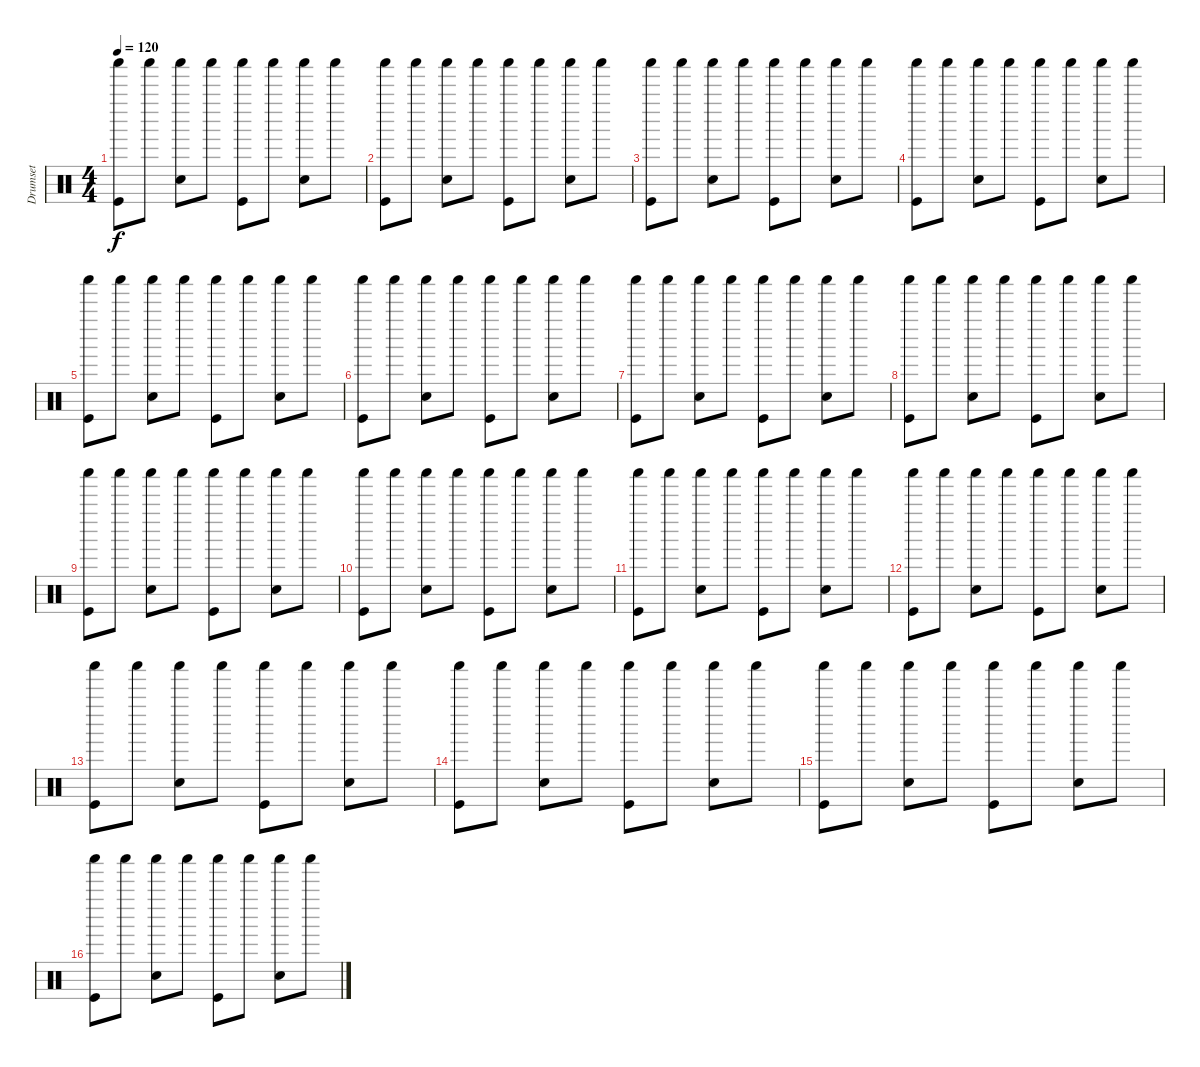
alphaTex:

\track ("Drumset" "Drumset") {instrument percussion}
\staff {score}
\articulation defaults
\ts (4 4)
\tempo 120
\clef neutral
\ks c
("Shaker (hit)" "Kick (hit)").8{dy f} "Shaker (hit)".8 ("Shaker (hit)" "Snare (hit) 2").8 "Shaker (hit)".8 ("Shaker (hit)" "Kick (hit)").8 "Shaker (hit)".8 ("Shaker (hit)" "Snare (hit) 2").8 "Shaker (hit)".8 |
("Shaker (hit)" "Kick (hit)").8 "Shaker (hit)".8 ("Shaker (hit)" "Snare (hit) 2").8 "Shaker (hit)".8 ("Shaker (hit)" "Kick (hit)").8 "Shaker (hit)".8 ("Shaker (hit)" "Snare (hit) 2").8 "Shaker (hit)".8 |
("Shaker (hit)" "Kick (hit)").8{volume 10} "Shaker (hit)".8 ("Shaker (hit)" "Snare (hit) 2").8 "Shaker (hit)".8 ("Shaker (hit)" "Kick (hit)").8 "Shaker (hit)".8 ("Shaker (hit)" "Snare (hit) 2").8 "Shaker (hit)".8 |
("Shaker (hit)" "Kick (hit)").8 "Shaker (hit)".8 ("Shaker (hit)" "Snare (hit) 2").8 "Shaker (hit)".8 ("Shaker (hit)" "Kick (hit)").8 "Shaker (hit)".8 ("Shaker (hit)" "Snare (hit) 2").8 "Shaker (hit)".8 |
("Shaker (hit)" "Kick (hit)").8 "Shaker (hit)".8 ("Shaker (hit)" "Snare (hit) 2").8 "Shaker (hit)".8 ("Shaker (hit)" "Kick (hit)").8 "Shaker (hit)".8 ("Shaker (hit)" "Snare (hit) 2").8 "Shaker (hit)".8 |
("Shaker (hit)" "Kick (hit)").8 "Shaker (hit)".8 ("Shaker (hit)" "Snare (hit) 2").8 "Shaker (hit)".8 ("Shaker (hit)" "Kick (hit)").8 "Shaker (hit)".8 ("Shaker (hit)" "Snare (hit) 2").8 "Shaker (hit)".8 |
("Shaker (hit)" "Kick (hit)").8{volume 6} "Shaker (hit)".8 ("Shaker (hit)" "Snare (hit) 2").8 "Shaker (hit)".8 ("Shaker (hit)" "Kick (hit)").8 "Shaker (hit)".8 ("Shaker (hit)" "Snare (hit) 2").8 "Shaker (hit)".8 |
("Shaker (hit)" "Kick (hit)").8 "Shaker (hit)".8 ("Shaker (hit)" "Snare (hit) 2").8 "Shaker (hit)".8 ("Shaker (hit)" "Kick (hit)").8 "Shaker (hit)".8 ("Shaker (hit)" "Snare (hit) 2").8 "Shaker (hit)".8 |
("Shaker (hit)" "Kick (hit)").8 "Shaker (hit)".8 ("Shaker (hit)" "Snare (hit) 2").8 "Shaker (hit)".8 ("Shaker (hit)" "Kick (hit)").8 "Shaker (hit)".8 ("Shaker (hit)" "Snare (hit) 2").8 "Shaker (hit)".8 |
("Shaker (hit)" "Kick (hit)").8 "Shaker (hit)".8 ("Shaker (hit)" "Snare (hit) 2").8 "Shaker (hit)".8 ("Shaker (hit)" "Kick (hit)").8 "Shaker (hit)".8 ("Shaker (hit)" "Snare (hit) 2").8 "Shaker (hit)".8 |
("Shaker (hit)" "Kick (hit)").8 "Shaker (hit)".8{volume 0} ("Shaker (hit)" "Snare (hit) 2").8 "Shaker (hit)".8 ("Shaker (hit)" "Kick (hit)").8 "Shaker (hit)".8 ("Shaker (hit)" "Snare (hit) 2").8 "Shaker (hit)".8 |
("Shaker (hit)" "Kick (hit)").8 "Shaker (hit)".8 ("Shaker (hit)" "Snare (hit) 2").8 "Shaker (hit)".8 ("Shaker (hit)" "Kick (hit)").8 "Shaker (hit)".8 ("Shaker (hit)" "Snare (hit) 2").8 "Shaker (hit)".8 |
("Shaker (hit)" "Kick (hit)").8 "Shaker (hit)".8 ("Shaker (hit)" "Snare (hit) 2").8 "Shaker (hit)".8 ("Shaker (hit)" "Kick (hit)").8 "Shaker (hit)".8 ("Shaker (hit)" "Snare (hit) 2").8 "Shaker (hit)".8 |
("Shaker (hit)" "Kick (hit)").8 "Shaker (hit)".8 ("Shaker (hit)" "Snare (hit) 2").8 "Shaker (hit)".8 ("Shaker (hit)" "Kick (hit)").8 "Shaker (hit)".8 ("Shaker (hit)" "Snare (hit) 2").8 "Shaker (hit)".8 |
("Shaker (hit)" "Kick (hit)").8 "Shaker (hit)".8 ("Shaker (hit)" "Snare (hit) 2").8 "Shaker (hit)".8 ("Shaker (hit)" "Kick (hit)").8 "Shaker (hit)".8 ("Shaker (hit)" "Snare (hit) 2").8 "Shaker (hit)".8 |
("Shaker (hit)" "Kick (hit)").8 "Shaker (hit)".8 ("Shaker (hit)" "Snare (hit) 2").8 "Shaker (hit)".8 ("Shaker (hit)" "Kick (hit)").8 "Shaker (hit)".8 ("Shaker (hit)" "Snare (hit) 2").8 "Shaker (hit)".8
